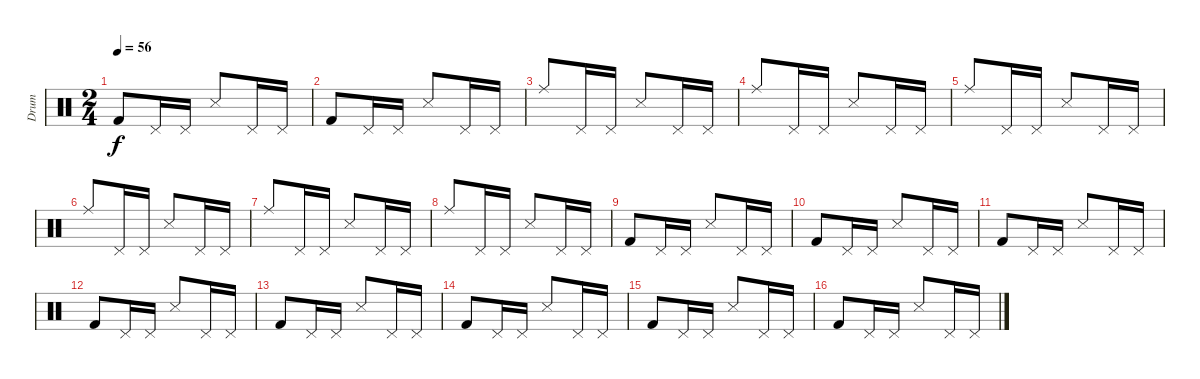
\track ("Drum" "Drum") {instrument percussion}
\staff {score}
\articulation defaults
\ts (2 4)
\tempo 56
\clef neutral
\ks c "Kick (hit) 2".8{dy f} "Pedal Hi-Hat (hit)".16 "Pedal Hi-Hat (hit)".16 "Snare (side stick) 3".8 "Pedal Hi-Hat (hit)".16 "Pedal Hi-Hat (hit)".16
|
"Kick (hit) 2".8 "Pedal Hi-Hat (hit)".16 "Pedal Hi-Hat (hit)".16 "Snare (side stick) 3".8 "Pedal Hi-Hat (hit)".16 "Pedal Hi-Hat (hit)".16 |
"Ride (middle)".8 "Pedal Hi-Hat (hit)".16 "Pedal Hi-Hat (hit)".16 "Snare (side stick) 3".8 "Pedal Hi-Hat (hit)".16 "Pedal Hi-Hat (hit)".16 |
"Ride (middle)".8 "Pedal Hi-Hat (hit)".16 "Pedal Hi-Hat (hit)".16 "Snare (side stick) 3".8 "Pedal Hi-Hat (hit)".16 "Pedal Hi-Hat (hit)".16 |
"Ride (middle)".8 "Pedal Hi-Hat (hit)".16 "Pedal Hi-Hat (hit)".16 "Snare (side stick) 3".8 "Pedal Hi-Hat (hit)".16 "Pedal Hi-Hat (hit)".16 |
"Ride (middle)".8 "Pedal Hi-Hat (hit)".16 "Pedal Hi-Hat (hit)".16 "Snare (side stick) 3".8 "Pedal Hi-Hat (hit)".16 "Pedal Hi-Hat (hit)".16 |
"Ride (middle)".8 "Pedal Hi-Hat (hit)".16 "Pedal Hi-Hat (hit)".16 "Snare (side stick) 3".8 "Pedal Hi-Hat (hit)".16 "Pedal Hi-Hat (hit)".16 |
"Ride (middle)".8 "Pedal Hi-Hat (hit)".16 "Pedal Hi-Hat (hit)".16 "Snare (side stick) 3".8 "Pedal Hi-Hat (hit)".16 "Pedal Hi-Hat (hit)".16 |
"Kick (hit) 2".8 "Pedal Hi-Hat (hit)".16 "Pedal Hi-Hat (hit)".16 "Snare (side stick) 3".8 "Pedal Hi-Hat (hit)".16 "Pedal Hi-Hat (hit)".16 |
"Kick (hit) 2".8 "Pedal Hi-Hat (hit)".16 "Pedal Hi-Hat (hit)".16 "Snare (side stick) 3".8 "Pedal Hi-Hat (hit)".16 "Pedal Hi-Hat (hit)".16 |
"Kick (hit) 2".8 "Pedal Hi-Hat (hit)".16 "Pedal Hi-Hat (hit)".16 "Snare (side stick) 3".8 "Pedal Hi-Hat (hit)".16 "Pedal Hi-Hat (hit)".16 |
"Kick (hit) 2".8 "Pedal Hi-Hat (hit)".16 "Pedal Hi-Hat (hit)".16 "Snare (side stick) 3".8 "Pedal Hi-Hat (hit)".16 "Pedal Hi-Hat (hit)".16 |
"Kick (hit) 2".8 "Pedal Hi-Hat (hit)".16 "Pedal Hi-Hat (hit)".16 "Snare (side stick) 3".8 "Pedal Hi-Hat (hit)".16 "Pedal Hi-Hat (hit)".16 |
"Kick (hit) 2".8 "Pedal Hi-Hat (hit)".16 "Pedal Hi-Hat (hit)".16 "Snare (side stick) 3".8 "Pedal Hi-Hat (hit)".16 "Pedal Hi-Hat (hit)".16 |
"Kick (hit) 2".8 "Pedal Hi-Hat (hit)".16 "Pedal Hi-Hat (hit)".16 "Snare (side stick) 3".8 "Pedal Hi-Hat (hit)".16 "Pedal Hi-Hat (hit)".16 |
"Kick (hit) 2".8 "Pedal Hi-Hat (hit)".16 "Pedal Hi-Hat (hit)".16 "Snare (side stick) 3".8 "Pedal Hi-Hat (hit)".16 "Pedal Hi-Hat (hit)".16
